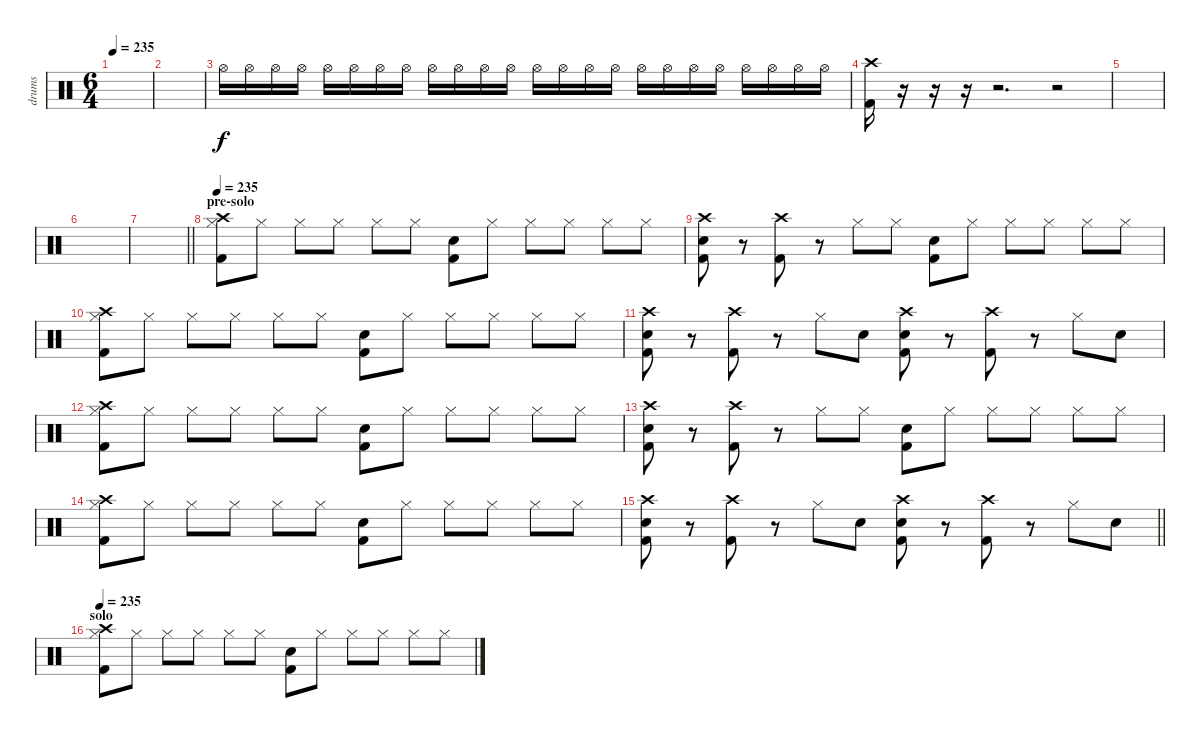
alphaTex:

\track ("drums" "drums") {instrument percussion}
\staff {score}
\articulation defaults
\ts (6 4)
\tempo 235
\clef neutral
\ks c
|
|
"Hi-Hat (open)".16{volume 0} "Hi-Hat (open)".16{volume 0} "Hi-Hat (open)".16{volume 1} "Hi-Hat (open)".16{volume 1} "Hi-Hat (open)".16{volume 2} "Hi-Hat (open)".16{volume 2} "Hi-Hat (open)".16{volume 3} "Hi-Hat (open)".16{volume 3} "Hi-Hat (open)".16{volume 4} "Hi-Hat (open)".16{volume 4} "Hi-Hat (open)".16{volume 5} "Hi-Hat (open)".16{volume 5} "Hi-Hat (open)".16{volume 6} "Hi-Hat (open)".16{volume 6} "Hi-Hat (open)".16{volume 7} "Hi-Hat (open)".16{volume 7} "Hi-Hat (open)".16{volume 8} "Hi-Hat (open)".16{volume 8} "Hi-Hat (open)".16{volume 9} "Hi-Hat (open)".16{volume 9} "Hi-Hat (open)".16{volume 10} "Hi-Hat (open)".16{volume 10} "Hi-Hat (open)".16{volume 11} "Hi-Hat (open)".16{volume 11} |
("Crash high (hit)" "Kick (hit) 2").16 r.16 r.16 r.16 r.2{d} r.2 |
|
|
\barLineRight lightlight
|
\section ("" "pre-solo")
\tempo 235
("Crash high (hit)" "Hi-Hat (closed)" "Kick (hit) 2").8 "Hi-Hat (closed)".8 "Hi-Hat (closed)".8 "Hi-Hat (closed)".8 "Hi-Hat (closed)".8 "Hi-Hat (closed)".8 ("Snare (hit) 2" "Kick (hit) 2").8 "Hi-Hat (closed)".8 "Hi-Hat (closed)".8 "Hi-Hat (closed)".8 "Hi-Hat (closed)".8 "Hi-Hat (closed)".8 |
("Crash high (hit)" "Snare (hit) 2" "Kick (hit) 2").8 r.8 ("Crash high (hit)" "Kick (hit) 2").8 r.8 "Hi-Hat (closed)".8 "Hi-Hat (closed)".8 ("Snare (hit) 2" "Kick (hit) 2").8 "Hi-Hat (closed)".8 "Hi-Hat (closed)".8 "Hi-Hat (closed)".8 "Hi-Hat (closed)".8 "Hi-Hat (closed)".8 |
("Crash high (hit)" "Hi-Hat (closed)" "Kick (hit) 2").8 "Hi-Hat (closed)".8 "Hi-Hat (closed)".8 "Hi-Hat (closed)".8 "Hi-Hat (closed)".8 "Hi-Hat (closed)".8 ("Snare (hit) 2" "Kick (hit) 2").8 "Hi-Hat (closed)".8 "Hi-Hat (closed)".8 "Hi-Hat (closed)".8 "Hi-Hat (closed)".8 "Hi-Hat (closed)".8 |
("Crash high (hit)" "Snare (hit) 2" "Kick (hit) 2").8 r.8 ("Crash high (hit)" "Kick (hit) 2").8 r.8 "Hi-Hat (closed)".8 "Snare (hit) 2".8 ("Crash high (hit)" "Snare (hit) 2" "Kick (hit) 2").8 r.8 ("Crash high (hit)" "Kick (hit) 2").8 r.8 "Hi-Hat (closed)".8 "Snare (hit) 2".8 |
("Crash high (hit)" "Hi-Hat (closed)" "Kick (hit) 2").8 "Hi-Hat (closed)".8 "Hi-Hat (closed)".8 "Hi-Hat (closed)".8 "Hi-Hat (closed)".8 "Hi-Hat (closed)".8 ("Snare (hit) 2" "Kick (hit) 2").8 "Hi-Hat (closed)".8 "Hi-Hat (closed)".8 "Hi-Hat (closed)".8 "Hi-Hat (closed)".8 "Hi-Hat (closed)".8 |
("Crash high (hit)" "Snare (hit) 2" "Kick (hit) 2").8 r.8 ("Crash high (hit)" "Kick (hit) 2").8 r.8 "Hi-Hat (closed)".8 "Hi-Hat (closed)".8 ("Snare (hit) 2" "Kick (hit) 2").8 "Hi-Hat (closed)".8 "Hi-Hat (closed)".8 "Hi-Hat (closed)".8 "Hi-Hat (closed)".8 "Hi-Hat (closed)".8 |
("Crash high (hit)" "Hi-Hat (closed)" "Kick (hit) 2").8 "Hi-Hat (closed)".8 "Hi-Hat (closed)".8 "Hi-Hat (closed)".8 "Hi-Hat (closed)".8 "Hi-Hat (closed)".8 ("Snare (hit) 2" "Kick (hit) 2").8 "Hi-Hat (closed)".8 "Hi-Hat (closed)".8 "Hi-Hat (closed)".8 "Hi-Hat (closed)".8 "Hi-Hat (closed)".8 |
\barLineRight lightlight
("Crash high (hit)" "Snare (hit) 2" "Kick (hit) 2").8 r.8 ("Crash high (hit)" "Kick (hit) 2").8 r.8 "Hi-Hat (closed)".8 "Snare (hit) 2".8 ("Crash high (hit)" "Snare (hit) 2" "Kick (hit) 2").8 r.8 ("Crash high (hit)" "Kick (hit) 2").8 r.8 "Hi-Hat (closed)".8 "Snare (hit) 2".8 |
\section ("" "solo")
\tempo 235
("Crash high (hit)" "Hi-Hat (closed)" "Kick (hit) 2").8 "Hi-Hat (closed)".8 "Hi-Hat (closed)".8 "Hi-Hat (closed)".8 "Hi-Hat (closed)".8 "Hi-Hat (closed)".8 ("Snare (hit) 2" "Kick (hit) 2").8 "Hi-Hat (closed)".8 "Hi-Hat (closed)".8 "Hi-Hat (closed)".8 "Hi-Hat (closed)".8 "Hi-Hat (closed)".8
